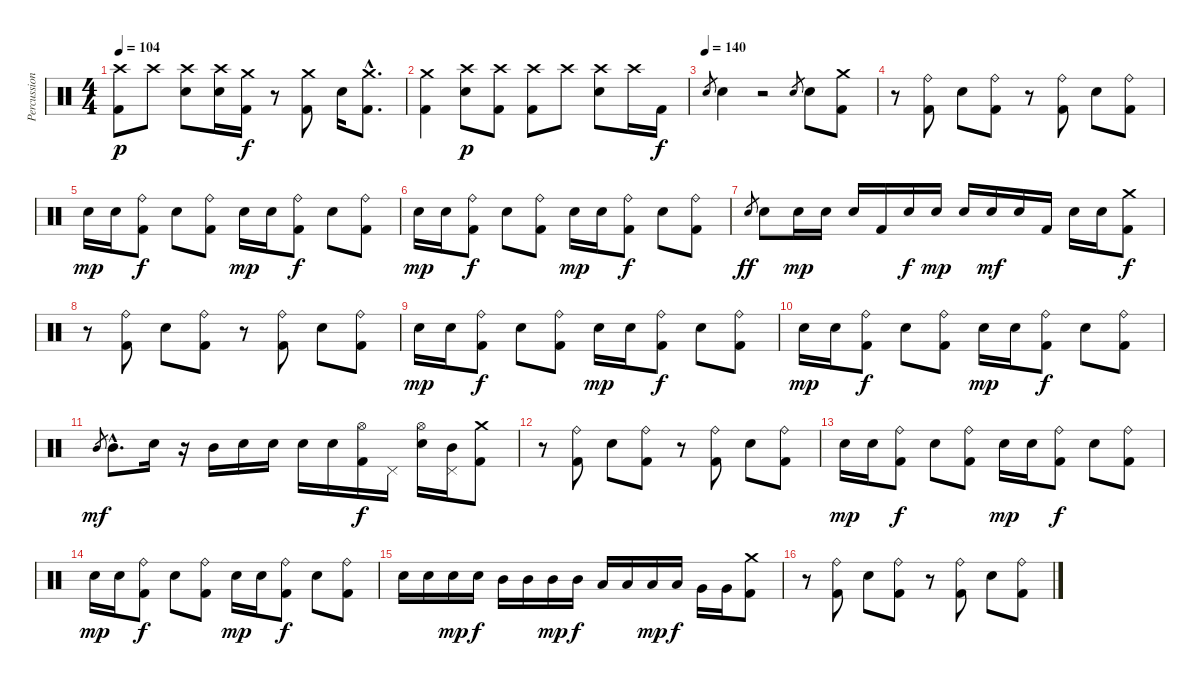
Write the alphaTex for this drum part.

\track ("Percussion" "Percussion") {instrument percussion}
\staff {score}
\articulation defaults
\ts (4 4)
\tempo 104
\clef neutral
\ks c
("Kick (hit) 2" "Crash high (hit)").8{dy p} "Crash high (hit)".8 ("Electric Snare (hit)" "Crash high (hit)").8 ("Electric Snare (hit)" "Crash high (hit)").16 ("Kick (hit) 2" "Crash medium (hit)").16{dy f} r.8 ("Kick (hit) 2" "Crash medium (hit)").8 "Electric Snare (hit)".16 ("Kick (hit) 2"{hac} "Crash medium (hit)"{hac}).8{d} |
("Crash medium (hit)" "Kick (hit) 2").4 ("Electric Snare (hit)" "Crash high (hit)").8{dy p} ("Kick (hit) 2" "Crash high (hit)").8 ("Kick (hit) 2" "Crash high (hit)").8 "Crash high (hit)".8 ("Electric Snare (hit)" "Crash high (hit)").8 "Crash high (hit)".16 "Kick (hit) 2".16{dy f} |
\tempo (140)
"Electric Snare (hit)".8{gr} "Electric Snare (hit)".4 r.2 "Electric Snare (hit)".8{gr} "Electric Snare (hit)".8 ("Kick (hit) 2" "Crash medium (hit)").8 |
r.8 ("Kick (hit) 2" "Ride (bell)").8 "Electric Snare (hit)".8 ("Kick (hit) 2" "Ride (bell)").8 r.8 ("Kick (hit) 2" "Ride (bell)").8 "Electric Snare (hit)".8 ("Kick (hit) 2" "Ride (bell)").8 |
"Electric Snare (hit)".16{dy mp} "Electric Snare (hit)".16 ("Kick (hit) 2" "Ride (bell)").8{dy f} "Electric Snare (hit)".8 ("Kick (hit) 2" "Ride (bell)").8 "Electric Snare (hit)".16{dy mp} "Electric Snare (hit)".16 ("Kick (hit) 2" "Ride (bell)").8{dy f} "Electric Snare (hit)".8 ("Kick (hit) 2" "Ride (bell)").8 |
"Electric Snare (hit)".16{dy mp} "Electric Snare (hit)".16 ("Kick (hit) 2" "Ride (bell)").8{dy f} "Electric Snare (hit)".8 ("Kick (hit) 2" "Ride (bell)").8 "Electric Snare (hit)".16{dy mp} "Electric Snare (hit)".16 ("Kick (hit) 2" "Ride (bell)").8{dy f} "Electric Snare (hit)".8 ("Kick (hit) 2" "Ride (bell)").8 |
"Electric Snare (hit)".8{gr dy ff} "Electric Snare (hit)".8 "Electric Snare (hit)".16{dy mp} "Electric Snare (hit)".16 "Electric Snare (hit)".16 "Kick (hit) 2".16 "Electric Snare (hit)".16{dy f} "Electric Snare (hit)".16{dy mp} "Electric Snare (hit)".16 "Electric Snare (hit)".16{dy mf} "Electric Snare (hit)".16 "Kick (hit) 2".16 "Electric Snare (hit)".16 "Electric Snare (hit)".16 ("Kick (hit) 2" "Crash medium (hit)").8{dy f} |
r.8 ("Kick (hit) 2" "Ride (bell)").8 "Electric Snare (hit)".8 ("Kick (hit) 2" "Ride (bell)").8 r.8 ("Kick (hit) 2" "Ride (bell)").8 "Electric Snare (hit)".8 ("Kick (hit) 2" "Ride (bell)").8 |
"Electric Snare (hit)".16{dy mp} "Electric Snare (hit)".16 ("Kick (hit) 2" "Ride (bell)").8{dy f} "Electric Snare (hit)".8 ("Kick (hit) 2" "Ride (bell)").8 "Electric Snare (hit)".16{dy mp} "Electric Snare (hit)".16 ("Kick (hit) 2" "Ride (bell)").8{dy f} "Electric Snare (hit)".8 ("Kick (hit) 2" "Ride (bell)").8 |
"Electric Snare (hit)".16{dy mp} "Electric Snare (hit)".16 ("Kick (hit) 2" "Ride (bell)").8{dy f} "Electric Snare (hit)".8 ("Kick (hit) 2" "Ride (bell)").8 "Electric Snare (hit)".16{dy mp} "Electric Snare (hit)".16 ("Kick (hit) 2" "Ride (bell)").8{dy f} "Electric Snare (hit)".8 ("Kick (hit) 2" "Ride (bell)").8 |
"Mid Tom (hit)".8{gr dy mf} "Mid Tom (hit)"{hac}.8{d} "Electric Snare (hit)".16 r.16 "Mid Tom (hit)".16 "Electric Snare (hit)".16 "Electric Snare (hit)".16 "Electric Snare (hit)".16 "Electric Snare (hit)".16 ("Kick (hit) 2" "Hi-Hat (open)").16{dy f} "Pedal Hi-Hat (hit)".16 ("Electric Snare (hit)" "Hi-Hat (open)").16 ("Mid Tom (hit)" "Pedal Hi-Hat (hit)").16 ("Kick (hit) 2" "Crash medium (hit)").8 |
r.8 ("Kick (hit) 2" "Ride (bell)").8 "Electric Snare (hit)".8 ("Kick (hit) 2" "Ride (bell)").8 r.8 ("Kick (hit) 2" "Ride (bell)").8 "Electric Snare (hit)".8 ("Kick (hit) 2" "Ride (bell)").8 |
"Electric Snare (hit)".16{dy mp} "Electric Snare (hit)".16 ("Kick (hit) 2" "Ride (bell)").8{dy f} "Electric Snare (hit)".8 ("Kick (hit) 2" "Ride (bell)").8 "Electric Snare (hit)".16{dy mp} "Electric Snare (hit)".16 ("Kick (hit) 2" "Ride (bell)").8{dy f} "Electric Snare (hit)".8 ("Kick (hit) 2" "Ride (bell)").8 |
"Electric Snare (hit)".16{dy mp} "Electric Snare (hit)".16 ("Kick (hit) 2" "Ride (bell)").8{dy f} "Electric Snare (hit)".8 ("Kick (hit) 2" "Ride (bell)").8 "Electric Snare (hit)".16{dy mp} "Electric Snare (hit)".16 ("Kick (hit) 2" "Ride (bell)").8{dy f} "Electric Snare (hit)".8 ("Kick (hit) 2" "Ride (bell)").8 |
"Electric Snare (hit)".16 "Electric Snare (hit)".16 "Electric Snare (hit)".16{dy mp} "Electric Snare (hit)".16{dy f} "Mid Tom (hit)".16 "Mid Tom (hit)".16 "Mid Tom (hit)".16{dy mp} "Mid Tom (hit)".16{dy f} "Low Tom (hit)".16 "Low Tom (hit)".16 "Low Tom (hit)".16{dy mp} "Low Tom (hit)".16{dy f} "Very Low Tom (hit)".16 "Very Low Tom (hit)".16 ("Kick (hit) 2" "Crash medium (hit)").8 |
r.8 ("Kick (hit) 2" "Ride (bell)").8 "Electric Snare (hit)".8 ("Kick (hit) 2" "Ride (bell)").8 r.8 ("Kick (hit) 2" "Ride (bell)").8 "Electric Snare (hit)".8 ("Kick (hit) 2" "Ride (bell)").8
